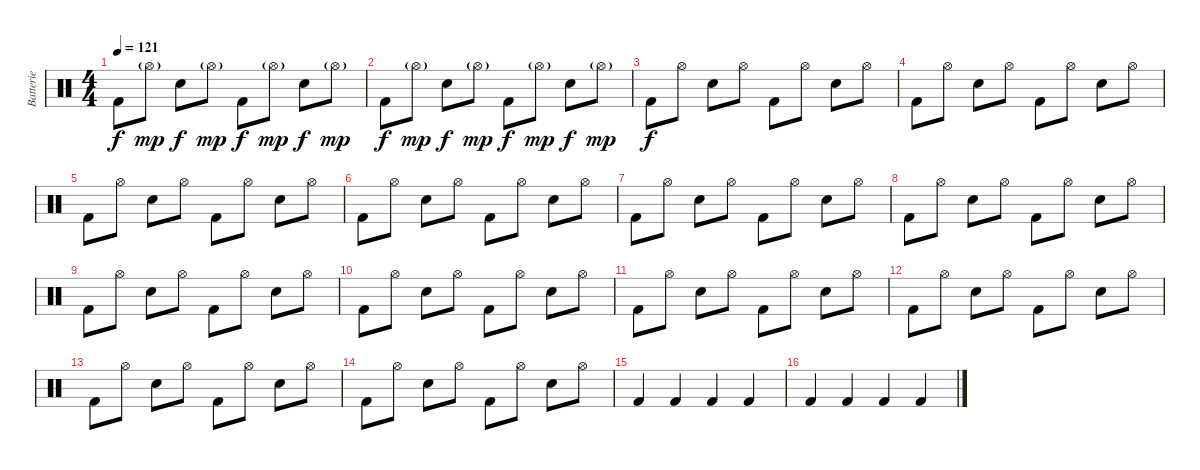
\track ("Batterie" "Batterie") {instrument percussion}
\staff {score}
\articulation defaults
\ts (4 4)
\tempo 121
\clef neutral
\ks c "Kick (hit) 2".8{dy f} "Hi-Hat (open)"{g}.8{dy mp} "Electric Snare (hit)".8{dy f} "Hi-Hat (open)"{g}.8{dy mp} "Kick (hit) 2".8{dy f} "Hi-Hat (open)"{g}.8{dy mp} "Electric Snare (hit)".8{dy f} "Hi-Hat (open)"{g}.8{dy mp}
|
"Kick (hit) 2".8{dy f} "Hi-Hat (open)"{g}.8{dy mp} "Electric Snare (hit)".8{dy f} "Hi-Hat (open)"{g}.8{dy mp} "Kick (hit) 2".8{dy f} "Hi-Hat (open)"{g}.8{dy mp} "Electric Snare (hit)".8{dy f} "Hi-Hat (open)"{g}.8{dy mp} |
"Kick (hit) 2".8{dy f} "Hi-Hat (open)".8 "Snare (hit) 2".8 "Hi-Hat (open)".8 "Kick (hit) 2".8 "Hi-Hat (open)".8 "Snare (hit) 2".8 "Hi-Hat (open)".8 |
"Kick (hit) 2".8 "Hi-Hat (open)".8 "Snare (hit) 2".8 "Hi-Hat (open)".8 "Kick (hit) 2".8 "Hi-Hat (open)".8 "Snare (hit) 2".8 "Hi-Hat (open)".8 |
"Kick (hit) 2".8 "Hi-Hat (open)".8 "Snare (hit) 2".8 "Hi-Hat (open)".8 "Kick (hit) 2".8 "Hi-Hat (open)".8 "Snare (hit) 2".8 "Hi-Hat (open)".8 |
"Kick (hit) 2".8 "Hi-Hat (open)".8 "Snare (hit) 2".8 "Hi-Hat (open)".8 "Kick (hit) 2".8 "Hi-Hat (open)".8 "Snare (hit) 2".8 "Hi-Hat (open)".8 |
"Kick (hit) 2".8 "Hi-Hat (open)".8 "Snare (hit) 2".8 "Hi-Hat (open)".8 "Kick (hit) 2".8 "Hi-Hat (open)".8 "Snare (hit) 2".8 "Hi-Hat (open)".8 |
"Kick (hit) 2".8 "Hi-Hat (open)".8 "Snare (hit) 2".8 "Hi-Hat (open)".8 "Kick (hit) 2".8 "Hi-Hat (open)".8 "Snare (hit) 2".8 "Hi-Hat (open)".8 |
"Kick (hit) 2".8 "Hi-Hat (open)".8 "Snare (hit) 2".8 "Hi-Hat (open)".8 "Kick (hit) 2".8 "Hi-Hat (open)".8 "Snare (hit) 2".8 "Hi-Hat (open)".8 |
"Kick (hit) 2".8 "Hi-Hat (open)".8 "Snare (hit) 2".8 "Hi-Hat (open)".8 "Kick (hit) 2".8 "Hi-Hat (open)".8 "Snare (hit) 2".8 "Hi-Hat (open)".8 |
"Kick (hit) 2".8 "Hi-Hat (open)".8 "Snare (hit) 2".8 "Hi-Hat (open)".8 "Kick (hit) 2".8 "Hi-Hat (open)".8 "Snare (hit) 2".8 "Hi-Hat (open)".8 |
"Kick (hit) 2".8 "Hi-Hat (open)".8 "Snare (hit) 2".8 "Hi-Hat (open)".8 "Kick (hit) 2".8 "Hi-Hat (open)".8 "Snare (hit) 2".8 "Hi-Hat (open)".8 |
"Kick (hit) 2".8 "Hi-Hat (open)".8 "Snare (hit) 2".8 "Hi-Hat (open)".8 "Kick (hit) 2".8 "Hi-Hat (open)".8 "Snare (hit) 2".8 "Hi-Hat (open)".8 |
"Kick (hit) 2".8 "Hi-Hat (open)".8 "Snare (hit) 2".8 "Hi-Hat (open)".8 "Kick (hit) 2".8 "Hi-Hat (open)".8 "Snare (hit) 2".8 "Hi-Hat (open)".8 |
"Kick (hit) 2".4 "Kick (hit) 2".4 "Kick (hit) 2".4 "Kick (hit) 2".4 |
"Kick (hit) 2".4 "Kick (hit) 2".4 "Kick (hit) 2".4 "Kick (hit) 2".4
